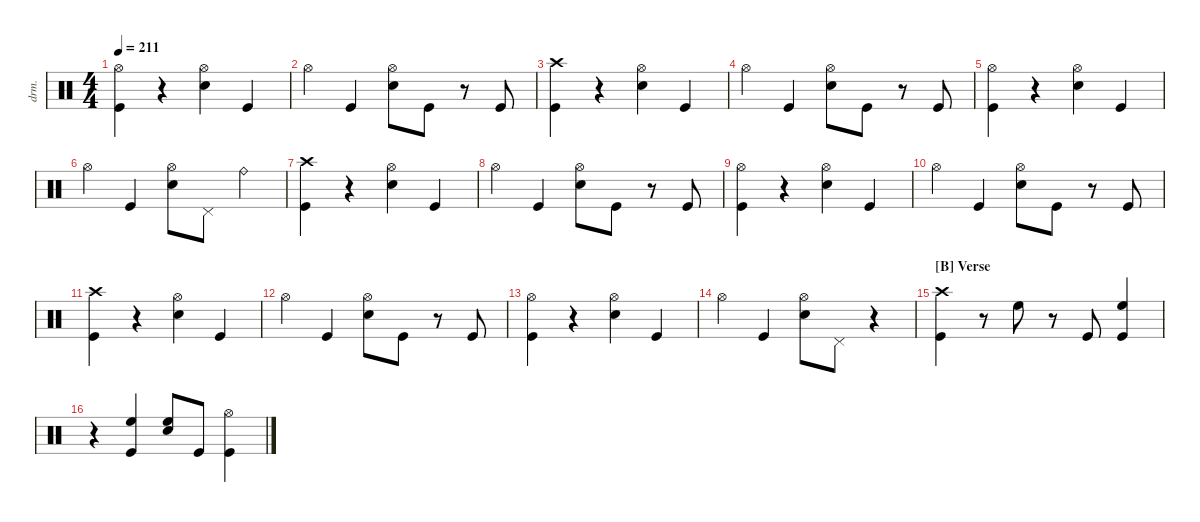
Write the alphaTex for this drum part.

\defaultSystemsLayout 4
\hideDynamics
\bracketExtendMode nobrackets
\track ("Drums" "drm.") {instrument percussion}
\staff {score}
\articulation defaults
\ts (4 4)
\tempo 211
\clef neutral
\ks c
("Kick (hit)" "Hi-Hat (open)"{acc #}).4{dy ff} r.4 ("Snare (hit) 2" "Hi-Hat (open)"{acc #}).4 "Kick (hit)".4 |
"Hi-Hat (open)"{acc #}.4 "Kick (hit)".4 ("Snare (hit) 2" "Hi-Hat (open)"{acc #}).8 "Kick (hit)".8 r.8 "Kick (hit)".8{dy mf} |
("Kick (hit)" "Crash high (hit)"{acc #}).4{dy ff} r.4 ("Snare (hit) 2" "Hi-Hat (open)"{acc #}).4 "Kick (hit)".4 |
"Hi-Hat (open)"{acc #}.4 "Kick (hit)".4 ("Snare (hit) 2" "Hi-Hat (open)"{acc #}).8 "Kick (hit)".8 r.8 "Kick (hit)".8{dy mf} |
("Kick (hit)" "Hi-Hat (open)"{acc #}).4{dy ff} r.4 ("Snare (hit) 2" "Hi-Hat (open)"{acc #}).4 "Kick (hit)".4 |
"Hi-Hat (open)"{acc #}.4 "Kick (hit)".4{dy f} ("Snare (hit) 2" "Hi-Hat (open)"{acc #}).8{dy ff} "Pedal Hi-Hat (hit)"{acc #}.8 "Ride (bell)".4{dy fff} |
("Kick (hit)" "Crash high (hit)"{acc #}).4{dy ff} r.4 ("Snare (hit) 2" "Hi-Hat (open)"{acc #}).4 "Kick (hit)".4 |
"Hi-Hat (open)"{acc #}.4 "Kick (hit)".4 ("Snare (hit) 2" "Hi-Hat (open)"{acc #}).8 "Kick (hit)".8 r.8 "Kick (hit)".8{dy mf} |
("Kick (hit)" "Hi-Hat (open)"{acc #}).4{dy ff} r.4 ("Snare (hit) 2" "Hi-Hat (open)"{acc #}).4 "Kick (hit)".4 |
"Hi-Hat (open)"{acc #}.4 "Kick (hit)".4 ("Snare (hit) 2" "Hi-Hat (open)"{acc #}).8 "Kick (hit)".8 r.8 "Kick (hit)".8{dy mf} |
("Kick (hit)" "Crash high (hit)"{acc #}).4{dy ff} r.4 ("Snare (hit) 2" "Hi-Hat (open)"{acc #}).4 "Kick (hit)".4 |
"Hi-Hat (open)"{acc #}.4 "Kick (hit)".4 ("Snare (hit) 2" "Hi-Hat (open)"{acc #}).8 "Kick (hit)".8 r.8 "Kick (hit)".8{dy mf} |
("Kick (hit)" "Hi-Hat (open)"{acc #}).4{dy ff} r.4 ("Snare (hit) 2" "Hi-Hat (open)"{acc #}).4 "Kick (hit)".4 |
"Hi-Hat (open)"{acc #}.4 "Kick (hit)".4 ("Snare (hit) 2" "Hi-Hat (open)"{acc #}).8 "Pedal Hi-Hat (hit)"{acc #}.8 r.4 |
\section ("B" "Verse")
("Kick (hit)" "Crash high (hit)"{acc #}).4 r.8 "High Floor Tom (hit)".8{dy f} r.8 "Kick (hit)".8{dy mf} ("Kick (hit)" "High Floor Tom (hit)").4{dy ff} |
r.4 ("Kick (hit)" "High Floor Tom (hit)").4 ("Snare (hit) 2" "High Floor Tom (hit)").8 "Kick (hit)".8{dy mf} ("Kick (hit)" "Hi-Hat (open)"{acc #}).4{dy ff}
